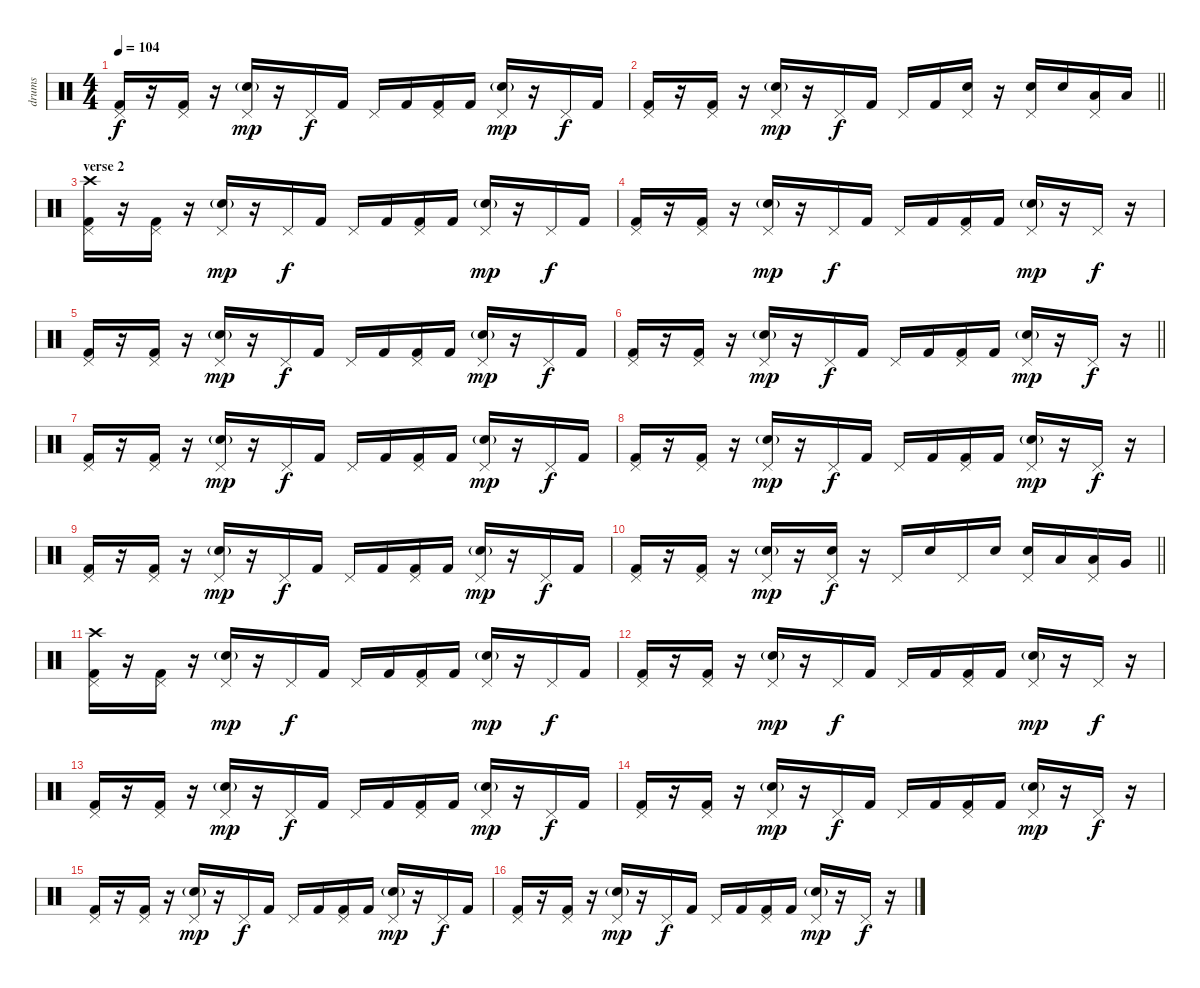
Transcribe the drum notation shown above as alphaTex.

\track ("drums" "drums") {instrument percussion}
\staff {score}
\articulation defaults
\ts (4 4)
\tempo 104
\clef neutral
\ks c
("Kick (hit) 2" "Pedal Hi-Hat (hit)").16{dy f} r.16 ("Kick (hit) 2" "Pedal Hi-Hat (hit)").16 r.16 ("Snare (hit) 2"{g} "Pedal Hi-Hat (hit)").16{dy mp} r.16 "Pedal Hi-Hat (hit)".16{dy f} "Kick (hit) 2".16 "Pedal Hi-Hat (hit)".16 "Kick (hit) 2".16 ("Kick (hit) 2" "Pedal Hi-Hat (hit)").16 "Kick (hit) 2".16 ("Snare (hit) 2"{g} "Pedal Hi-Hat (hit)").16{dy mp} r.16 "Pedal Hi-Hat (hit)".16{dy f} "Kick (hit) 2".16 |
\barLineRight lightlight
("Kick (hit) 2" "Pedal Hi-Hat (hit)").16 r.16 ("Kick (hit) 2" "Pedal Hi-Hat (hit)").16 r.16 ("Snare (hit) 2"{g} "Pedal Hi-Hat (hit)").16{dy mp} r.16 "Pedal Hi-Hat (hit)".16{dy f} "Kick (hit) 2".16 "Pedal Hi-Hat (hit)".16 "Kick (hit) 2".16 ("Snare (hit) 2" "Pedal Hi-Hat (hit)").16 r.16 ("Snare (hit) 2" "Pedal Hi-Hat (hit)").16 "Snare (hit) 2".16 ("Low Tom (hit)" "Pedal Hi-Hat (hit)").16 "Low Tom (hit)".16 |
\section ("" "verse 2")
("Kick (hit) 2" "Pedal Hi-Hat (hit)" "Crash high (hit)").16 r.16 ("Kick (hit) 2" "Pedal Hi-Hat (hit)").16 r.16 ("Snare (hit) 2"{g} "Pedal Hi-Hat (hit)").16{dy mp} r.16 "Pedal Hi-Hat (hit)".16{dy f} "Kick (hit) 2".16 "Pedal Hi-Hat (hit)".16 "Kick (hit) 2".16 ("Kick (hit) 2" "Pedal Hi-Hat (hit)").16 "Kick (hit) 2".16 ("Snare (hit) 2"{g} "Pedal Hi-Hat (hit)").16{dy mp} r.16 "Pedal Hi-Hat (hit)".16{dy f} "Kick (hit) 2".16 |
("Kick (hit) 2" "Pedal Hi-Hat (hit)").16 r.16 ("Kick (hit) 2" "Pedal Hi-Hat (hit)").16 r.16 ("Snare (hit) 2"{g} "Pedal Hi-Hat (hit)").16{dy mp} r.16 "Pedal Hi-Hat (hit)".16{dy f} "Kick (hit) 2".16 "Pedal Hi-Hat (hit)".16 "Kick (hit) 2".16 ("Kick (hit) 2" "Pedal Hi-Hat (hit)").16 "Kick (hit) 2".16 ("Snare (hit) 2"{g} "Pedal Hi-Hat (hit)").16{dy mp} r.16 "Pedal Hi-Hat (hit)".16{dy f} r.16 |
("Kick (hit) 2" "Pedal Hi-Hat (hit)").16 r.16 ("Kick (hit) 2" "Pedal Hi-Hat (hit)").16 r.16 ("Snare (hit) 2"{g} "Pedal Hi-Hat (hit)").16{dy mp} r.16 "Pedal Hi-Hat (hit)".16{dy f} "Kick (hit) 2".16 "Pedal Hi-Hat (hit)".16 "Kick (hit) 2".16 ("Kick (hit) 2" "Pedal Hi-Hat (hit)").16 "Kick (hit) 2".16 ("Snare (hit) 2"{g} "Pedal Hi-Hat (hit)").16{dy mp} r.16 "Pedal Hi-Hat (hit)".16{dy f} "Kick (hit) 2".16 |
\barLineRight lightlight
("Kick (hit) 2" "Pedal Hi-Hat (hit)").16 r.16 ("Kick (hit) 2" "Pedal Hi-Hat (hit)").16 r.16 ("Snare (hit) 2"{g} "Pedal Hi-Hat (hit)").16{dy mp} r.16 "Pedal Hi-Hat (hit)".16{dy f} "Kick (hit) 2".16 "Pedal Hi-Hat (hit)".16 "Kick (hit) 2".16 ("Kick (hit) 2" "Pedal Hi-Hat (hit)").16 "Kick (hit) 2".16 ("Snare (hit) 2"{g} "Pedal Hi-Hat (hit)").16{dy mp} r.16 "Pedal Hi-Hat (hit)".16{dy f} r.16 |
("Kick (hit) 2" "Pedal Hi-Hat (hit)").16 r.16 ("Kick (hit) 2" "Pedal Hi-Hat (hit)").16 r.16 ("Snare (hit) 2"{g} "Pedal Hi-Hat (hit)").16{dy mp} r.16 "Pedal Hi-Hat (hit)".16{dy f} "Kick (hit) 2".16 "Pedal Hi-Hat (hit)".16 "Kick (hit) 2".16 ("Kick (hit) 2" "Pedal Hi-Hat (hit)").16 "Kick (hit) 2".16 ("Snare (hit) 2"{g} "Pedal Hi-Hat (hit)").16{dy mp} r.16 "Pedal Hi-Hat (hit)".16{dy f} "Kick (hit) 2".16 |
("Kick (hit) 2" "Pedal Hi-Hat (hit)").16 r.16 ("Kick (hit) 2" "Pedal Hi-Hat (hit)").16 r.16 ("Snare (hit) 2"{g} "Pedal Hi-Hat (hit)").16{dy mp} r.16 "Pedal Hi-Hat (hit)".16{dy f} "Kick (hit) 2".16 "Pedal Hi-Hat (hit)".16 "Kick (hit) 2".16 ("Kick (hit) 2" "Pedal Hi-Hat (hit)").16 "Kick (hit) 2".16 ("Snare (hit) 2"{g} "Pedal Hi-Hat (hit)").16{dy mp} r.16 "Pedal Hi-Hat (hit)".16{dy f} r.16 |
("Kick (hit) 2" "Pedal Hi-Hat (hit)").16 r.16 ("Kick (hit) 2" "Pedal Hi-Hat (hit)").16 r.16 ("Snare (hit) 2"{g} "Pedal Hi-Hat (hit)").16{dy mp} r.16 "Pedal Hi-Hat (hit)".16{dy f} "Kick (hit) 2".16 "Pedal Hi-Hat (hit)".16 "Kick (hit) 2".16 ("Kick (hit) 2" "Pedal Hi-Hat (hit)").16 "Kick (hit) 2".16 ("Snare (hit) 2"{g} "Pedal Hi-Hat (hit)").16{dy mp} r.16 "Pedal Hi-Hat (hit)".16{dy f} "Kick (hit) 2".16 |
\barLineRight lightlight
("Kick (hit) 2" "Pedal Hi-Hat (hit)").16 r.16 ("Kick (hit) 2" "Pedal Hi-Hat (hit)").16 r.16 ("Snare (hit) 2"{g} "Pedal Hi-Hat (hit)").16{dy mp} r.16 ("Snare (hit) 2" "Pedal Hi-Hat (hit)").16{dy f} r.16 "Pedal Hi-Hat (hit)".16 "Snare (hit) 2".16 "Pedal Hi-Hat (hit)".16 "Snare (hit) 2".16 ("Snare (hit) 2" "Pedal Hi-Hat (hit)").16 "Low Tom (hit)".16 ("Low Tom (hit)" "Pedal Hi-Hat (hit)").16 "Very Low Tom (hit)".16 |
("Kick (hit) 2" "Pedal Hi-Hat (hit)" "Crash high (hit)").16 r.16 ("Kick (hit) 2" "Pedal Hi-Hat (hit)").16 r.16 ("Snare (hit) 2"{g} "Pedal Hi-Hat (hit)").16{dy mp} r.16 "Pedal Hi-Hat (hit)".16{dy f} "Kick (hit) 2".16 "Pedal Hi-Hat (hit)".16 "Kick (hit) 2".16 ("Kick (hit) 2" "Pedal Hi-Hat (hit)").16 "Kick (hit) 2".16 ("Snare (hit) 2"{g} "Pedal Hi-Hat (hit)").16{dy mp} r.16 "Pedal Hi-Hat (hit)".16{dy f} "Kick (hit) 2".16 |
("Kick (hit) 2" "Pedal Hi-Hat (hit)").16 r.16 ("Kick (hit) 2" "Pedal Hi-Hat (hit)").16 r.16 ("Snare (hit) 2"{g} "Pedal Hi-Hat (hit)").16{dy mp} r.16 "Pedal Hi-Hat (hit)".16{dy f} "Kick (hit) 2".16 "Pedal Hi-Hat (hit)".16 "Kick (hit) 2".16 ("Kick (hit) 2" "Pedal Hi-Hat (hit)").16 "Kick (hit) 2".16 ("Snare (hit) 2"{g} "Pedal Hi-Hat (hit)").16{dy mp} r.16 "Pedal Hi-Hat (hit)".16{dy f} r.16 |
("Kick (hit) 2" "Pedal Hi-Hat (hit)").16 r.16 ("Kick (hit) 2" "Pedal Hi-Hat (hit)").16 r.16 ("Snare (hit) 2"{g} "Pedal Hi-Hat (hit)").16{dy mp} r.16 "Pedal Hi-Hat (hit)".16{dy f} "Kick (hit) 2".16 "Pedal Hi-Hat (hit)".16 "Kick (hit) 2".16 ("Kick (hit) 2" "Pedal Hi-Hat (hit)").16 "Kick (hit) 2".16 ("Snare (hit) 2"{g} "Pedal Hi-Hat (hit)").16{dy mp} r.16 "Pedal Hi-Hat (hit)".16{dy f} "Kick (hit) 2".16 |
("Kick (hit) 2" "Pedal Hi-Hat (hit)").16 r.16 ("Kick (hit) 2" "Pedal Hi-Hat (hit)").16 r.16 ("Snare (hit) 2"{g} "Pedal Hi-Hat (hit)").16{dy mp} r.16 "Pedal Hi-Hat (hit)".16{dy f} "Kick (hit) 2".16 "Pedal Hi-Hat (hit)".16 "Kick (hit) 2".16 ("Kick (hit) 2" "Pedal Hi-Hat (hit)").16 "Kick (hit) 2".16 ("Snare (hit) 2"{g} "Pedal Hi-Hat (hit)").16{dy mp} r.16 "Pedal Hi-Hat (hit)".16{dy f} r.16 |
("Kick (hit) 2" "Pedal Hi-Hat (hit)").16 r.16 ("Kick (hit) 2" "Pedal Hi-Hat (hit)").16 r.16 ("Snare (hit) 2"{g} "Pedal Hi-Hat (hit)").16{dy mp} r.16 "Pedal Hi-Hat (hit)".16{dy f} "Kick (hit) 2".16 "Pedal Hi-Hat (hit)".16 "Kick (hit) 2".16 ("Kick (hit) 2" "Pedal Hi-Hat (hit)").16 "Kick (hit) 2".16 ("Snare (hit) 2"{g} "Pedal Hi-Hat (hit)").16{dy mp} r.16 "Pedal Hi-Hat (hit)".16{dy f} "Kick (hit) 2".16 |
("Kick (hit) 2" "Pedal Hi-Hat (hit)").16 r.16 ("Kick (hit) 2" "Pedal Hi-Hat (hit)").16 r.16 ("Snare (hit) 2"{g} "Pedal Hi-Hat (hit)").16{dy mp} r.16 "Pedal Hi-Hat (hit)".16{dy f} "Kick (hit) 2".16 "Pedal Hi-Hat (hit)".16 "Kick (hit) 2".16 ("Kick (hit) 2" "Pedal Hi-Hat (hit)").16 "Kick (hit) 2".16 ("Snare (hit) 2"{g} "Pedal Hi-Hat (hit)").16{dy mp} r.16 "Pedal Hi-Hat (hit)".16{dy f} r.16
